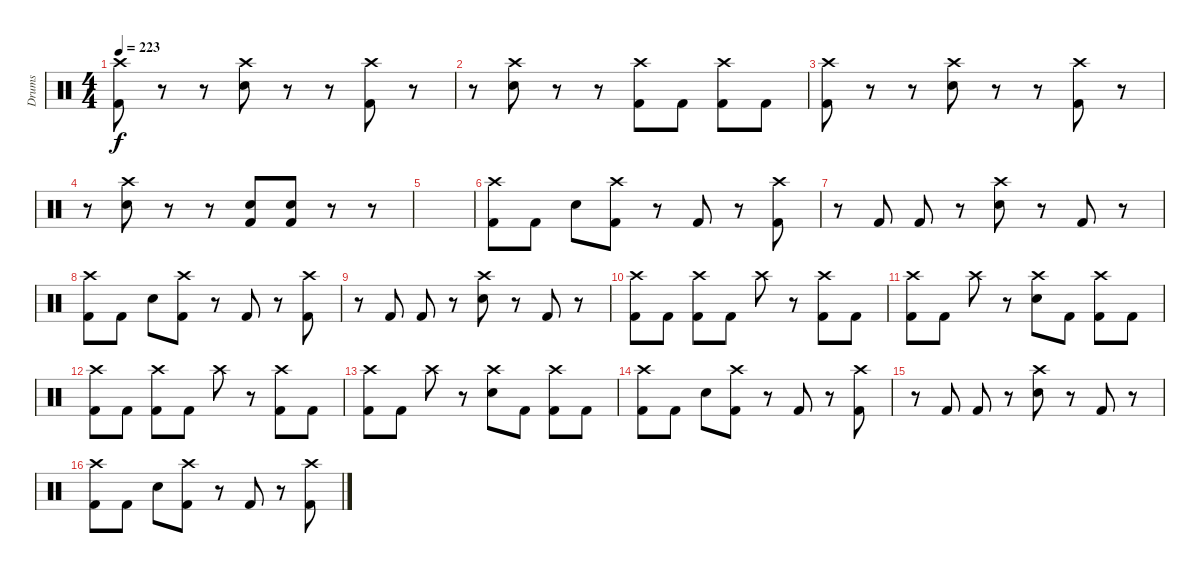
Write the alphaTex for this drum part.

\track ("Drums" "Drums") {instrument percussion bank 177}
\staff {score}
\articulation defaults
\ts (4 4)
\tempo 223
\clef neutral
\ks c
("Crash high (hit)" "Kick (hit) 2").8{dy f} r.8 r.8 ("Crash high (hit)" "Electric Snare (hit)").8 r.8 r.8 ("Crash high (hit)" "Kick (hit) 2").8 r.8 |
r.8 ("Crash high (hit)" "Electric Snare (hit)").8 r.8 r.8 ("Crash high (hit)" "Kick (hit) 2").8 "Kick (hit) 2".8 ("Crash high (hit)" "Kick (hit) 2").8 "Kick (hit) 2".8 |
("Crash high (hit)" "Kick (hit) 2").8 r.8 r.8 ("Crash high (hit)" "Electric Snare (hit)").8 r.8 r.8 ("Crash high (hit)" "Kick (hit) 2").8 r.8 |
r.8 ("Crash high (hit)" "Electric Snare (hit)").8 r.8 r.8 ("Electric Snare (hit)" "Kick (hit) 2").8 ("Electric Snare (hit)" "Kick (hit) 2").8 r.8 r.8 |
|
("Crash high (hit)" "Kick (hit) 2").8 "Kick (hit) 2".8 "Electric Snare (hit)".8 ("Crash high (hit)" "Kick (hit) 2").8 r.8 "Kick (hit) 2".8 r.8 ("Crash high (hit)" "Kick (hit) 2").8 |
r.8 "Kick (hit) 2".8 "Kick (hit) 2".8 r.8 ("Crash high (hit)" "Electric Snare (hit)").8 r.8 "Kick (hit) 2".8 r.8 |
("Crash high (hit)" "Kick (hit) 2").8 "Kick (hit) 2".8 "Electric Snare (hit)".8 ("Crash high (hit)" "Kick (hit) 2").8 r.8 "Kick (hit) 2".8 r.8 ("Crash high (hit)" "Kick (hit) 2").8 |
r.8 "Kick (hit) 2".8 "Kick (hit) 2".8 r.8 ("Crash high (hit)" "Electric Snare (hit)").8 r.8 "Kick (hit) 2".8 r.8 |
("Crash high (hit)" "Kick (hit) 2").8 "Kick (hit) 2".8 ("Crash high (hit)" "Kick (hit) 2").8 "Kick (hit) 2".8 "Crash high (hit)".8 r.8 ("Crash high (hit)" "Kick (hit) 2").8 "Kick (hit) 2".8 |
("Crash high (hit)" "Kick (hit) 2").8 "Kick (hit) 2".8 "Crash high (hit)".8 r.8 ("Crash high (hit)" "Electric Snare (hit)").8 "Kick (hit) 2".8 ("Crash high (hit)" "Kick (hit) 2").8 "Kick (hit) 2".8 |
("Crash high (hit)" "Kick (hit) 2").8 "Kick (hit) 2".8 ("Crash high (hit)" "Kick (hit) 2").8 "Kick (hit) 2".8 "Crash high (hit)".8 r.8 ("Crash high (hit)" "Kick (hit) 2").8 "Kick (hit) 2".8 |
("Crash high (hit)" "Kick (hit) 2").8 "Kick (hit) 2".8 "Crash high (hit)".8 r.8 ("Crash high (hit)" "Electric Snare (hit)").8 "Kick (hit) 2".8 ("Crash high (hit)" "Kick (hit) 2").8 "Kick (hit) 2".8 |
("Crash high (hit)" "Kick (hit) 2").8 "Kick (hit) 2".8 "Electric Snare (hit)".8 ("Crash high (hit)" "Kick (hit) 2").8 r.8 "Kick (hit) 2".8 r.8 ("Crash high (hit)" "Kick (hit) 2").8 |
r.8 "Kick (hit) 2".8 "Kick (hit) 2".8 r.8 ("Crash high (hit)" "Electric Snare (hit)").8 r.8 "Kick (hit) 2".8 r.8 |
("Crash high (hit)" "Kick (hit) 2").8 "Kick (hit) 2".8 "Electric Snare (hit)".8 ("Crash high (hit)" "Kick (hit) 2").8 r.8 "Kick (hit) 2".8 r.8 ("Crash high (hit)" "Kick (hit) 2").8
